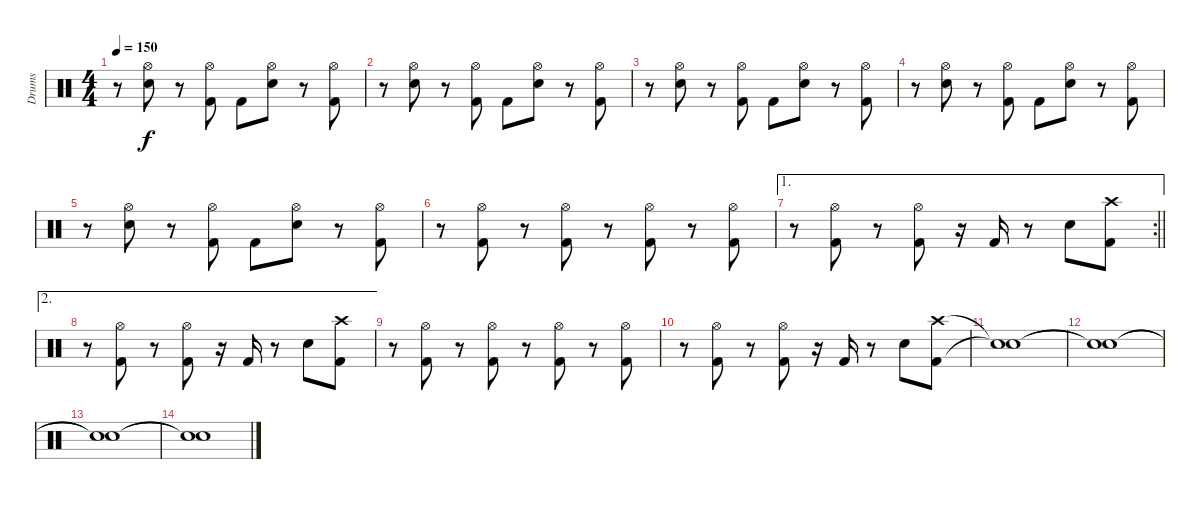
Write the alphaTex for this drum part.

\track ("Drums" "Drums") {instrument percussion}
\staff {score}
\articulation defaults
\ts (4 4)
\tempo 150
\clef neutral
\ks c
r.8{dy f} ("Snare (hit) 2" "Hi-Hat (open)").8 r.8 ("Kick (hit) 2" "Hi-Hat (open)").8 "Kick (hit) 2".8 ("Snare (hit) 2" "Hi-Hat (open)").8 r.8 ("Kick (hit) 2" "Hi-Hat (open)").8 |
r.8 ("Snare (hit) 2" "Hi-Hat (open)").8 r.8 ("Kick (hit) 2" "Hi-Hat (open)").8 "Kick (hit) 2".8 ("Snare (hit) 2" "Hi-Hat (open)").8 r.8 ("Kick (hit) 2" "Hi-Hat (open)").8 |
r.8 ("Snare (hit) 2" "Hi-Hat (open)").8 r.8 ("Kick (hit) 2" "Hi-Hat (open)").8 "Kick (hit) 2".8 ("Snare (hit) 2" "Hi-Hat (open)").8 r.8 ("Kick (hit) 2" "Hi-Hat (open)").8 |
r.8 ("Snare (hit) 2" "Hi-Hat (open)").8 r.8 ("Kick (hit) 2" "Hi-Hat (open)").8 "Kick (hit) 2".8 ("Snare (hit) 2" "Hi-Hat (open)").8 r.8 ("Kick (hit) 2" "Hi-Hat (open)").8 |
r.8 ("Snare (hit) 2" "Hi-Hat (open)").8 r.8 ("Kick (hit) 2" "Hi-Hat (open)").8 "Kick (hit) 2".8 ("Snare (hit) 2" "Hi-Hat (open)").8 r.8 ("Kick (hit) 2" "Hi-Hat (open)").8 |
r.8 ("Kick (hit) 2" "Hi-Hat (open)").8 r.8 ("Kick (hit) 2" "Hi-Hat (open)").8 r.8 ("Kick (hit) 2" "Hi-Hat (open)").8 r.8 ("Kick (hit) 2" "Hi-Hat (open)").8 |
\ae 1
\rc 2
\barLineRight lightlight
r.8 ("Kick (hit) 2" "Hi-Hat (open)").8 r.8 ("Kick (hit) 2" "Hi-Hat (open)").8 r.16 "Kick (hit) 2".16 r.8 "Snare (hit) 2".8 ("Kick (hit) 2" "Crash high (hit)").8 |
\ae 2
r.8 ("Kick (hit) 2" "Hi-Hat (open)").8 r.8 ("Kick (hit) 2" "Hi-Hat (open)").8 r.16 "Kick (hit) 2".16 r.8 "Snare (hit) 2".8 ("Kick (hit) 2" "Crash high (hit)").8 |
r.8 ("Kick (hit) 2" "Hi-Hat (open)").8 r.8 ("Kick (hit) 2" "Hi-Hat (open)").8 r.8 ("Kick (hit) 2" "Hi-Hat (open)").8 r.8 ("Kick (hit) 2" "Hi-Hat (open)").8 |
r.8 ("Kick (hit) 2" "Hi-Hat (open)").8 r.8 ("Kick (hit) 2" "Hi-Hat (open)").8 r.16 "Kick (hit) 2".16 r.8 "Snare (hit) 2".8 ("Kick (hit) 2" "Crash high (hit)").8 |
("Snare (hit)"{t} "Snare (hit)"{t}).1 |
("Snare (hit)"{t} "Snare (hit)"{t}).1 |
("Snare (hit)"{t} "Snare (hit)"{t}).1 |
("Snare (hit)"{t} "Snare (hit)"{t}).1
